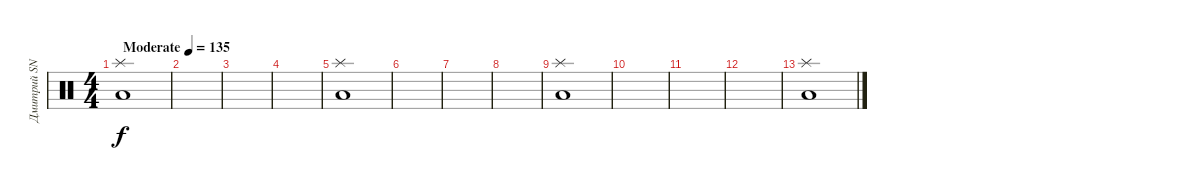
\track ("Дмитрий SNAKE Хакимов" "Дмитрий SN") {instrument percussion}
\staff {score}
\articulation defaults
\ts (4 4)
\tempo (135 "Moderate")
\clef neutral
\ks c
("Splash (hit)" "Low Floor Tom (hit)").1{dy f} |
|
|
|
("Splash (hit)" "Low Floor Tom (hit)").1 |
|
|
|
("Splash (hit)" "Low Floor Tom (hit)").1 |
|
|
|
("Splash (hit)" "Low Floor Tom (hit)").1
